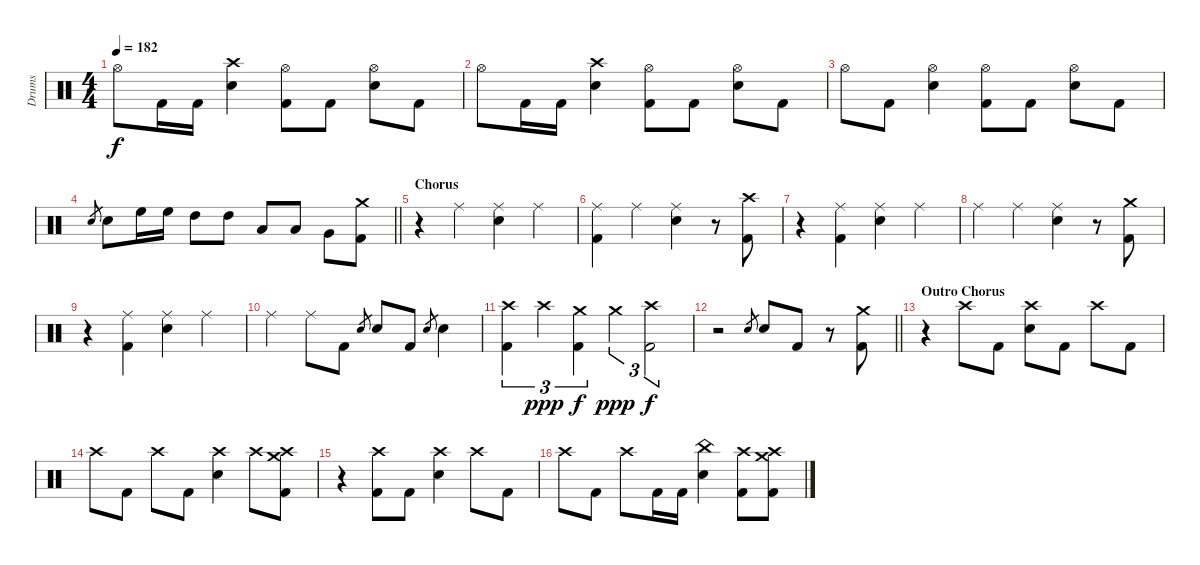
\track ("Drums" "Drums") {instrument percussion}
\staff {score}
\articulation defaults
\ts (4 4)
\tempo 182
\clef neutral
\ks c "Hi-Hat (open)".8{dy f} "Kick (hit) 2".16 "Kick (hit) 2".16
("Crash high (hit)" "Snare (hit) 2").4 ("Hi-Hat (open)" "Kick (hit) 2").8 "Kick (hit) 2".8 ("Hi-Hat (open)" "Snare (hit) 2").8 "Kick (hit) 2".8 |
"Hi-Hat (open)".8 "Kick (hit) 2".16 "Kick (hit) 2".16 ("Crash high (hit)" "Snare (hit) 2").4 ("Hi-Hat (open)" "Kick (hit) 2").8 "Kick (hit) 2".8 ("Hi-Hat (open)" "Snare (hit) 2").8 "Kick (hit) 2".8 |
"Hi-Hat (open)".8 "Kick (hit) 2".8 ("Hi-Hat (open)" "Snare (hit) 2").4 ("Hi-Hat (open)" "Kick (hit) 2").8 "Kick (hit) 2".8 ("Hi-Hat (open)" "Snare (hit) 2").8 "Kick (hit) 2".8 |
\barLineRight lightlight "Snare (hit) 2".8{gr} "Snare (hit) 2".8 "High Floor Tom (hit)".16 "High Floor Tom (hit)".16 "High Tom (hit)".8 "High Tom (hit)".8 "Low Tom (hit)".8 "Low Tom (hit)".8 "Very Low Tom (hit)".8
("Crash medium (hit)" "Kick (hit) 2").8 |
\section ("" "Chorus")
r.4 "Ride (middle)".4 ("Ride (middle)" "Snare (hit) 2").4 "Ride (middle)".4 |
("Ride (middle)" "Kick (hit) 2").4 "Ride (middle)".4 ("Ride (middle)" "Snare (hit) 2").4 r.8 ("Crash high (hit)" "Kick (hit) 2").8 |
r.4 ("Ride (middle)" "Kick (hit) 2").4 ("Ride (middle)" "Snare (hit) 2").4 "Ride (middle)".4 |
"Ride (middle)".4 "Ride (middle)".4 ("Ride (middle)" "Snare (hit) 2").4 r.8 ("Crash medium (hit)" "Kick (hit) 2").8 |
r.4 ("Ride (middle)" "Kick (hit) 2").4 ("Ride (middle)" "Snare (hit) 2").4 "Ride (middle)".4 |
"Ride (middle)".4 "Ride (middle)".8 "Kick (hit) 2".8 "Snare (hit) 2".8{gr} "Snare (hit) 2".8 "Kick (hit) 2".8 "Snare (hit) 2".8{gr} "Snare (hit) 2".4 |
("Crash high (hit)" "Kick (hit) 2").4{tu (3 2)} "Crash high (hit)".4{tu (3 2) dy ppp} ("Crash medium (hit)" "Kick (hit) 2").4{tu (3 2) dy f} "Crash medium (hit)".4{tu (3 2) dy ppp} ("Crash high (hit)" "Kick (hit) 2").2{tu (3 2) dy f} |
\barLineRight lightlight
r.2 "Snare (hit) 2".8{gr} "Snare (hit) 2".8 "Kick (hit) 2".8 r.8 ("Crash medium (hit)" "Kick (hit) 2").8 |
\section ("" "Outro Chorus")
r.4 "Crash high (hit)".8 "Kick (hit) 2".8 ("Crash high (hit)" "Snare (hit) 2").8 "Kick (hit) 2".8 "Crash high (hit)".8 "Kick (hit) 2".8 |
"Crash high (hit)".8 "Kick (hit) 2".8 "Crash high (hit)".8 "Kick (hit) 2".8 ("Crash high (hit)" "Snare (hit) 2").4 "Crash high (hit)".8 ("Crash medium (hit)" "Crash high (hit)" "Kick (hit) 2").8 |
r.4 ("Crash high (hit)" "Kick (hit) 2").8 "Kick (hit) 2".8 ("Crash high (hit)" "Snare (hit) 2").4 "Crash high (hit)".8 "Kick (hit) 2".8 |
"Crash high (hit)".8 "Kick (hit) 2".8 "Crash high (hit)".8 "Kick (hit) 2".16 "Kick (hit) 2".16 ("China (hit)" "Snare (hit) 2").4 ("Crash high (hit)" "Kick (hit) 2").8 ("Crash medium (hit)" "Crash high (hit)" "Kick (hit) 2").8
